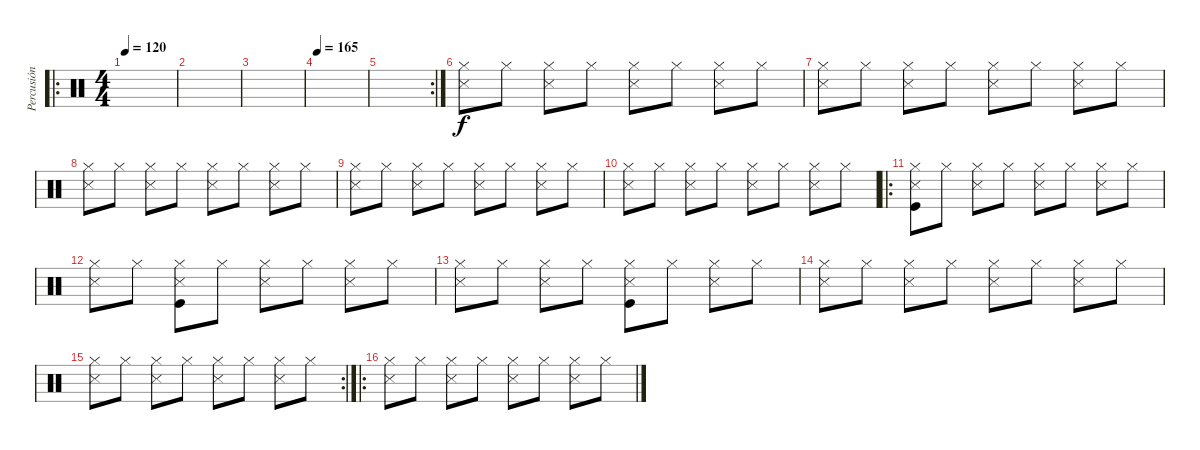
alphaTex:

\track ("Percusión" "Percusión") {instrument percussion}
\staff {score}
\articulation defaults
\ro
\ts (4 4)
\tempo 120
\tempo 162
\tempo 120
\clef neutral
\ks c
|
|
|
\tempo 165
|
\rc 2
|
("Hi-Hat (closed)" "Snare (side stick) 3").8 "Hi-Hat (closed)".8 ("Hi-Hat (closed)" "Snare (side stick) 3").8 "Hi-Hat (closed)".8 ("Hi-Hat (closed)" "Snare (side stick) 3").8 "Hi-Hat (closed)".8 ("Hi-Hat (closed)" "Snare (side stick) 3").8 "Hi-Hat (closed)".8 |
("Hi-Hat (closed)" "Snare (side stick) 3").8 "Hi-Hat (closed)".8 ("Hi-Hat (closed)" "Snare (side stick) 3").8 "Hi-Hat (closed)".8 ("Hi-Hat (closed)" "Snare (side stick) 3").8 "Hi-Hat (closed)".8 ("Hi-Hat (closed)" "Snare (side stick) 3").8 "Hi-Hat (closed)".8 |
("Hi-Hat (closed)" "Snare (side stick) 3").8 "Hi-Hat (closed)".8 ("Hi-Hat (closed)" "Snare (side stick) 3").8 "Hi-Hat (closed)".8 ("Hi-Hat (closed)" "Snare (side stick) 3").8 "Hi-Hat (closed)".8 ("Hi-Hat (closed)" "Snare (side stick) 3").8 "Hi-Hat (closed)".8 |
("Hi-Hat (closed)" "Snare (side stick) 3").8 "Hi-Hat (closed)".8 ("Hi-Hat (closed)" "Snare (side stick) 3").8 "Hi-Hat (closed)".8 ("Hi-Hat (closed)" "Snare (side stick) 3").8 "Hi-Hat (closed)".8 ("Hi-Hat (closed)" "Snare (side stick) 3").8 "Hi-Hat (closed)".8 |
("Hi-Hat (closed)" "Snare (side stick) 3").8 "Hi-Hat (closed)".8 ("Hi-Hat (closed)" "Snare (side stick) 3").8 "Hi-Hat (closed)".8 ("Hi-Hat (closed)" "Snare (side stick) 3").8 "Hi-Hat (closed)".8 ("Hi-Hat (closed)" "Snare (side stick) 3").8 "Hi-Hat (closed)".8 |
\ro
("Hi-Hat (closed)" "Snare (side stick) 3" "Kick (hit)").8 "Hi-Hat (closed)".8 ("Hi-Hat (closed)" "Snare (side stick) 3").8 "Hi-Hat (closed)".8 ("Hi-Hat (closed)" "Snare (side stick) 3").8 "Hi-Hat (closed)".8 ("Hi-Hat (closed)" "Snare (side stick) 3").8 "Hi-Hat (closed)".8 |
("Hi-Hat (closed)" "Snare (side stick) 3").8 "Hi-Hat (closed)".8 ("Hi-Hat (closed)" "Snare (side stick) 3" "Kick (hit)").8 "Hi-Hat (closed)".8 ("Hi-Hat (closed)" "Snare (side stick) 3").8 "Hi-Hat (closed)".8 ("Hi-Hat (closed)" "Snare (side stick) 3").8 "Hi-Hat (closed)".8 |
("Hi-Hat (closed)" "Snare (side stick) 3").8 "Hi-Hat (closed)".8 ("Hi-Hat (closed)" "Snare (side stick) 3").8 "Hi-Hat (closed)".8 ("Hi-Hat (closed)" "Snare (side stick) 3" "Kick (hit)").8 "Hi-Hat (closed)".8 ("Hi-Hat (closed)" "Snare (side stick) 3").8 "Hi-Hat (closed)".8 |
("Hi-Hat (closed)" "Snare (side stick) 3").8 "Hi-Hat (closed)".8 ("Hi-Hat (closed)" "Snare (side stick) 3").8 "Hi-Hat (closed)".8 ("Hi-Hat (closed)" "Snare (side stick) 3").8 "Hi-Hat (closed)".8 ("Hi-Hat (closed)" "Snare (side stick) 3").8 "Hi-Hat (closed)".8 |
\rc 2
("Hi-Hat (closed)" "Snare (side stick) 3").8 "Hi-Hat (closed)".8 ("Hi-Hat (closed)" "Snare (side stick) 3").8 "Hi-Hat (closed)".8 ("Hi-Hat (closed)" "Snare (side stick) 3").8 "Hi-Hat (closed)".8 ("Hi-Hat (closed)" "Snare (side stick) 3").8 "Hi-Hat (closed)".8 |
\ro
("Hi-Hat (closed)" "Snare (side stick) 3").8 "Hi-Hat (closed)".8 ("Hi-Hat (closed)" "Snare (side stick) 3").8 "Hi-Hat (closed)".8 ("Hi-Hat (closed)" "Snare (side stick) 3").8 "Hi-Hat (closed)".8 ("Hi-Hat (closed)" "Snare (side stick) 3").8 "Hi-Hat (closed)".8
